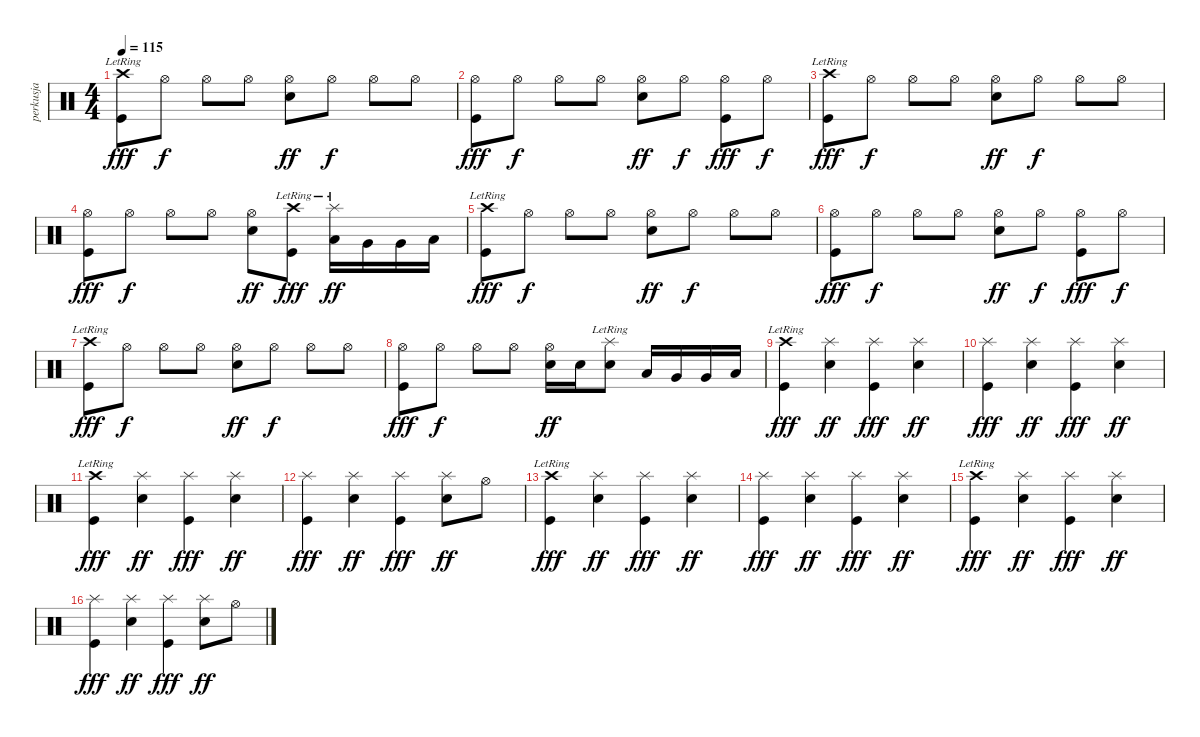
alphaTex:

\track ("perkusja" "perkusja") {instrument percussion}
\staff {score}
\articulation defaults
\ts (4 4)
\tempo 115
\clef neutral
\ks c
("Crash high (hit)"{lr} "Kick (hit)").8{dy fff} "Hi-Hat (open)".8{dy f} "Hi-Hat (open)".8 "Hi-Hat (open)".8 ("Hi-Hat (open)" "Electric Snare (hit)").8{dy ff} "Hi-Hat (open)".8{dy f} "Hi-Hat (open)".8 "Hi-Hat (open)".8 |
("Hi-Hat (open)" "Kick (hit)").8{dy fff} "Hi-Hat (open)".8{dy f} "Hi-Hat (open)".8 "Hi-Hat (open)".8 ("Hi-Hat (open)" "Electric Snare (hit)").8{dy ff} "Hi-Hat (open)".8{dy f} ("Hi-Hat (open)" "Kick (hit)").8{dy fff} "Hi-Hat (open)".8{dy f} |
("Crash high (hit)"{lr} "Kick (hit)").8{dy fff} "Hi-Hat (open)".8{dy f} "Hi-Hat (open)".8 "Hi-Hat (open)".8 ("Hi-Hat (open)" "Electric Snare (hit)").8{dy ff} "Hi-Hat (open)".8{dy f} "Hi-Hat (open)".8 "Hi-Hat (open)".8 |
("Hi-Hat (open)" "Kick (hit)").8{dy fff} "Hi-Hat (open)".8{dy f} "Hi-Hat (open)".8 "Hi-Hat (open)".8 ("Hi-Hat (open)" "Electric Snare (hit)").8{dy ff} ("Crash high (hit)"{lr} "Kick (hit)").8{dy fff} ("Splash (hit)"{lr} "Low Floor Tom (hit)").16{dy ff} "Very Low Tom (hit)".16 "Very Low Tom (hit)".16 "Low Floor Tom (hit)".16 |
("Crash high (hit)"{lr} "Kick (hit)").8{dy fff} "Hi-Hat (open)".8{dy f} "Hi-Hat (open)".8 "Hi-Hat (open)".8 ("Hi-Hat (open)" "Electric Snare (hit)").8{dy ff} "Hi-Hat (open)".8{dy f} "Hi-Hat (open)".8 "Hi-Hat (open)".8 |
("Hi-Hat (open)" "Kick (hit)").8{dy fff} "Hi-Hat (open)".8{dy f} "Hi-Hat (open)".8 "Hi-Hat (open)".8 ("Hi-Hat (open)" "Electric Snare (hit)").8{dy ff} "Hi-Hat (open)".8{dy f} ("Hi-Hat (open)" "Kick (hit)").8{dy fff} "Hi-Hat (open)".8{dy f} |
("Crash high (hit)"{lr} "Kick (hit)").8{dy fff} "Hi-Hat (open)".8{dy f} "Hi-Hat (open)".8 "Hi-Hat (open)".8 ("Hi-Hat (open)" "Electric Snare (hit)").8{dy ff} "Hi-Hat (open)".8{dy f} "Hi-Hat (open)".8 "Hi-Hat (open)".8 |
("Hi-Hat (open)" "Kick (hit)").8{dy fff} "Hi-Hat (open)".8{dy f} "Hi-Hat (open)".8 "Hi-Hat (open)".8 ("Hi-Hat (open)" "Electric Snare (hit)").16{dy ff} "Electric Snare (hit)".16 ("Splash (hit)"{lr} "Electric Snare (hit)").8 "Low Floor Tom (hit)".16 "Very Low Tom (hit)".16 "Very Low Tom (hit)".16 "Low Floor Tom (hit)".16 |
("Crash high (hit)"{lr} "Kick (hit)").4{dy fff} ("Splash (hit)" "Electric Snare (hit)").4{dy ff} ("Splash (hit)" "Kick (hit)").4{dy fff} ("Splash (hit)" "Electric Snare (hit)").4{dy ff} |
("Splash (hit)" "Kick (hit)").4{dy fff} ("Splash (hit)" "Electric Snare (hit)").4{dy ff} ("Splash (hit)" "Kick (hit)").4{dy fff} ("Splash (hit)" "Electric Snare (hit)").4{dy ff} |
("Crash high (hit)"{lr} "Kick (hit)").4{dy fff} ("Splash (hit)" "Electric Snare (hit)").4{dy ff} ("Splash (hit)" "Kick (hit)").4{dy fff} ("Splash (hit)" "Electric Snare (hit)").4{dy ff} |
("Splash (hit)" "Kick (hit)").4{dy fff} ("Splash (hit)" "Electric Snare (hit)").4{dy ff} ("Splash (hit)" "Kick (hit)").4{dy fff} ("Splash (hit)" "Electric Snare (hit)").8{dy ff} "Hi-Hat (open)".8 |
("Crash high (hit)"{lr} "Kick (hit)").4{dy fff} ("Splash (hit)" "Electric Snare (hit)").4{dy ff} ("Splash (hit)" "Kick (hit)").4{dy fff} ("Splash (hit)" "Electric Snare (hit)").4{dy ff} |
("Splash (hit)" "Kick (hit)").4{dy fff} ("Splash (hit)" "Electric Snare (hit)").4{dy ff} ("Splash (hit)" "Kick (hit)").4{dy fff} ("Splash (hit)" "Electric Snare (hit)").4{dy ff} |
("Crash high (hit)"{lr} "Kick (hit)").4{dy fff} ("Splash (hit)" "Electric Snare (hit)").4{dy ff} ("Splash (hit)" "Kick (hit)").4{dy fff} ("Splash (hit)" "Electric Snare (hit)").4{dy ff} |
("Splash (hit)" "Kick (hit)").4{dy fff} ("Splash (hit)" "Electric Snare (hit)").4{dy ff} ("Splash (hit)" "Kick (hit)").4{dy fff} ("Splash (hit)" "Electric Snare (hit)").8{dy ff} "Hi-Hat (open)".8
